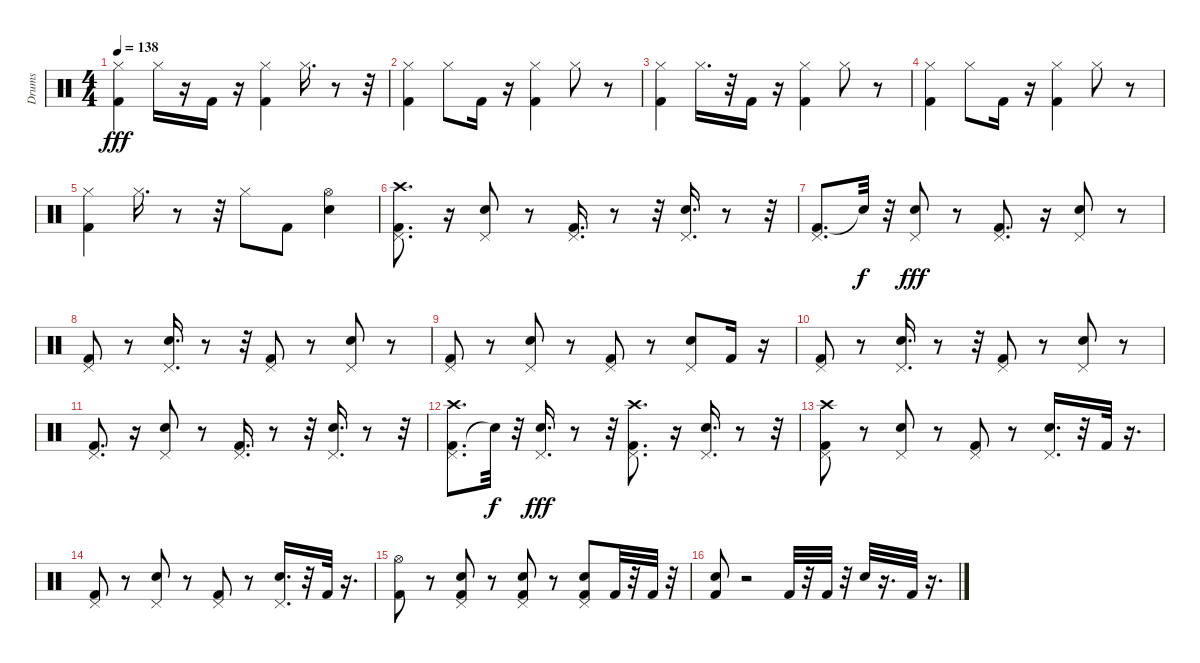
\track ("Drums" "Drums") {instrument percussion}
\staff {score}
\articulation defaults
\ts (4 4)
\tempo 138
\clef neutral
\ks c
("Kick (hit) 2" "Hi-Hat (closed)").4{dy fff} "Hi-Hat (closed)".16 r.16 "Kick (hit) 2".16 r.16 ("Kick (hit) 2" "Hi-Hat (closed)").4 "Hi-Hat (closed)".16{d} r.8 r.32 |
("Kick (hit) 2" "Hi-Hat (closed)").4 "Hi-Hat (closed)".8 "Kick (hit) 2".16 r.16 ("Kick (hit) 2" "Hi-Hat (closed)").4 "Hi-Hat (closed)".8 r.8 |
("Kick (hit) 2" "Hi-Hat (closed)").4 "Hi-Hat (closed)".16{d} r.32 "Kick (hit) 2".16 r.16 ("Kick (hit) 2" "Hi-Hat (closed)").4 "Hi-Hat (closed)".8 r.8 |
("Kick (hit) 2" "Hi-Hat (closed)").4 "Hi-Hat (closed)".8 "Kick (hit) 2".16 r.16 ("Kick (hit) 2" "Hi-Hat (closed)").4 "Hi-Hat (closed)".8 r.8 |
("Kick (hit) 2" "Hi-Hat (closed)").4 "Hi-Hat (closed)".16{d} r.8 r.32 "Hi-Hat (closed)".8 "Kick (hit) 2".8 ("Snare (hit) 2" "Hi-Hat (open)").4 |
("Kick (hit) 2" "Pedal Hi-Hat (hit)" "Crash high (hit)").8{d} r.16 ("Snare (hit) 2" "Pedal Hi-Hat (hit)").8 r.8 ("Kick (hit) 2" "Pedal Hi-Hat (hit)").16{d} r.8 r.32 ("Snare (hit) 2" "Pedal Hi-Hat (hit)").16{d} r.8 r.32 |
("Kick (hit) 2" "Pedal Hi-Hat (hit)").8{d} "Snare (hit)"{t}.32{dy f} r.32 ("Snare (hit) 2" "Pedal Hi-Hat (hit)").8{dy fff} r.8 ("Kick (hit) 2" "Pedal Hi-Hat (hit)").8{d} r.16 ("Snare (hit) 2" "Pedal Hi-Hat (hit)").8 r.8 |
("Kick (hit) 2" "Pedal Hi-Hat (hit)").8 r.8 ("Snare (hit) 2" "Pedal Hi-Hat (hit)").16{d} r.8 r.32 ("Kick (hit) 2" "Pedal Hi-Hat (hit)").8 r.8 ("Snare (hit) 2" "Pedal Hi-Hat (hit)").8 r.8 |
("Kick (hit) 2" "Pedal Hi-Hat (hit)").8 r.8 ("Snare (hit) 2" "Pedal Hi-Hat (hit)").8 r.8 ("Kick (hit) 2" "Pedal Hi-Hat (hit)").8 r.8 ("Snare (hit) 2" "Pedal Hi-Hat (hit)").8 "Kick (hit) 2".16 r.16 |
("Kick (hit) 2" "Pedal Hi-Hat (hit)").8 r.8 ("Snare (hit) 2" "Pedal Hi-Hat (hit)").16{d} r.8 r.32 ("Kick (hit) 2" "Pedal Hi-Hat (hit)").8 r.8 ("Snare (hit) 2" "Pedal Hi-Hat (hit)").8 r.8 |
("Kick (hit) 2" "Pedal Hi-Hat (hit)").8{d} r.16 ("Snare (hit) 2" "Pedal Hi-Hat (hit)").8 r.8 ("Kick (hit) 2" "Pedal Hi-Hat (hit)").16{d} r.8 r.32 ("Snare (hit) 2" "Pedal Hi-Hat (hit)").16{d} r.8 r.32 |
("Kick (hit) 2" "Pedal Hi-Hat (hit)" "Crash high (hit)").8{d} "Snare (hit)"{t}.32{dy f} r.32 ("Snare (hit) 2" "Pedal Hi-Hat (hit)").16{d dy fff} r.8 r.32 ("Kick (hit) 2" "Pedal Hi-Hat (hit)" "Crash high (hit)").8{d} r.16 ("Snare (hit) 2" "Pedal Hi-Hat (hit)").16{d} r.8 r.32 |
("Kick (hit) 2" "Pedal Hi-Hat (hit)" "Crash high (hit)").8 r.8 ("Snare (hit) 2" "Pedal Hi-Hat (hit)").8 r.8 ("Kick (hit) 2" "Pedal Hi-Hat (hit)").8 r.8 ("Snare (hit) 2" "Pedal Hi-Hat (hit)").16{d} r.32 "Kick (hit) 2".32 r.16{d} |
("Kick (hit) 2" "Pedal Hi-Hat (hit)").8 r.8 ("Snare (hit) 2" "Pedal Hi-Hat (hit)").8 r.8 ("Kick (hit) 2" "Pedal Hi-Hat (hit)").8 r.8 ("Snare (hit) 2" "Pedal Hi-Hat (hit)").16{d} r.32 "Kick (hit) 2".32 r.16{d} |
("Kick (hit) 2" "Hi-Hat (open)").8 r.8 ("Kick (hit) 2" "Snare (hit) 2" "Pedal Hi-Hat (hit)").8 r.8 ("Kick (hit) 2" "Snare (hit) 2" "Pedal Hi-Hat (hit)").8 r.8 ("Kick (hit) 2" "Snare (hit) 2" "Pedal Hi-Hat (hit)").8 "Kick (hit) 2".32 r.32 "Kick (hit) 2".32 r.32 |
("Kick (hit) 2" "Snare (hit) 2").8 r.2 "Kick (hit) 2".32 r.32 "Kick (hit) 2".32 r.32 "Snare (hit) 2".32 r.16{d} "Kick (hit) 2".32 r.16{d}
